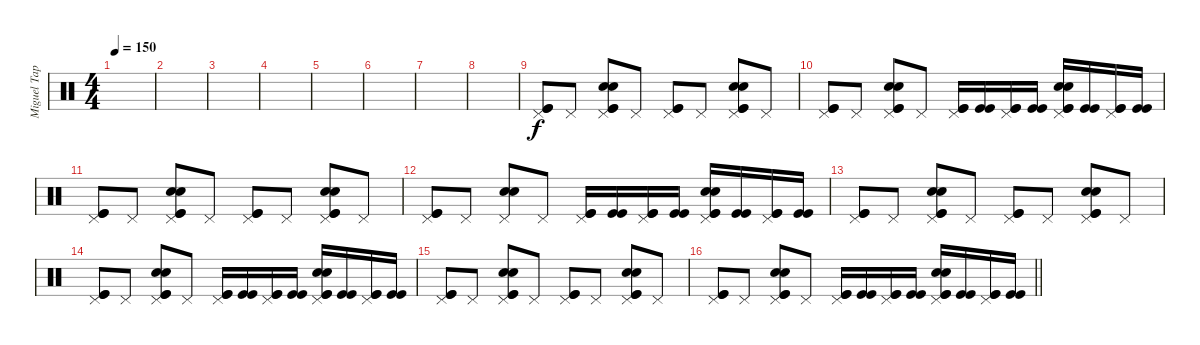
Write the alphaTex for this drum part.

\track ("Miguel Tapia" "Miguel Tap") {instrument percussion}
\staff {score}
\articulation defaults
\ts (4 4)
\tempo 150
\clef neutral
\ks c
|
|
|
|
|
|
|
|
("Pedal Hi-Hat (hit)" "Kick (hit)" "Kick (hit)").8 "Pedal Hi-Hat (hit)".8 ("Pedal Hi-Hat (hit)" "Snare (hit) 2" "Snare (hit) 2" "Kick (hit)" "Kick (hit)").8 "Pedal Hi-Hat (hit)".8 ("Pedal Hi-Hat (hit)" "Kick (hit)" "Kick (hit)").8 "Pedal Hi-Hat (hit)".8 ("Pedal Hi-Hat (hit)" "Snare (hit) 2" "Snare (hit) 2" "Kick (hit)" "Kick (hit)").8 "Pedal Hi-Hat (hit)".8 |
("Pedal Hi-Hat (hit)" "Kick (hit)" "Kick (hit)").8 "Pedal Hi-Hat (hit)".8 ("Pedal Hi-Hat (hit)" "Snare (hit) 2" "Snare (hit) 2" "Kick (hit)" "Kick (hit)").8 "Pedal Hi-Hat (hit)".8 ("Pedal Hi-Hat (hit)" "Kick (hit)" "Kick (hit)").16 ("Kick (hit)" "Kick (hit)").16 ("Pedal Hi-Hat (hit)" "Kick (hit)" "Kick (hit)").16 ("Kick (hit)" "Kick (hit)").16 ("Pedal Hi-Hat (hit)" "Kick (hit)" "Kick (hit)" "Snare (hit) 2" "Snare (hit) 2").16 ("Kick (hit)" "Kick (hit)").16 ("Pedal Hi-Hat (hit)" "Kick (hit)" "Kick (hit)").16 ("Kick (hit)" "Kick (hit)").16 |
("Pedal Hi-Hat (hit)" "Kick (hit)" "Kick (hit)").8 "Pedal Hi-Hat (hit)".8 ("Pedal Hi-Hat (hit)" "Snare (hit) 2" "Snare (hit) 2" "Kick (hit)" "Kick (hit)").8 "Pedal Hi-Hat (hit)".8 ("Pedal Hi-Hat (hit)" "Kick (hit)" "Kick (hit)").8 "Pedal Hi-Hat (hit)".8 ("Pedal Hi-Hat (hit)" "Snare (hit) 2" "Snare (hit) 2" "Kick (hit)" "Kick (hit)").8 "Pedal Hi-Hat (hit)".8 |
("Pedal Hi-Hat (hit)" "Kick (hit)" "Kick (hit)").8 "Pedal Hi-Hat (hit)".8 ("Pedal Hi-Hat (hit)" "Snare (hit) 2" "Snare (hit) 2").8 "Pedal Hi-Hat (hit)".8 ("Pedal Hi-Hat (hit)" "Kick (hit)" "Kick (hit)").16 ("Kick (hit)" "Kick (hit)").16 ("Pedal Hi-Hat (hit)" "Kick (hit)" "Kick (hit)").16 ("Kick (hit)" "Kick (hit)").16 ("Pedal Hi-Hat (hit)" "Kick (hit)" "Kick (hit)" "Snare (hit) 2" "Snare (hit) 2").16 ("Kick (hit)" "Kick (hit)").16 ("Pedal Hi-Hat (hit)" "Kick (hit)" "Kick (hit)").16 ("Kick (hit)" "Kick (hit)").16 |
("Pedal Hi-Hat (hit)" "Kick (hit)" "Kick (hit)").8 "Pedal Hi-Hat (hit)".8 ("Pedal Hi-Hat (hit)" "Snare (hit) 2" "Snare (hit) 2" "Kick (hit)" "Kick (hit)").8 "Pedal Hi-Hat (hit)".8 ("Pedal Hi-Hat (hit)" "Kick (hit)" "Kick (hit)").8 "Pedal Hi-Hat (hit)".8 ("Pedal Hi-Hat (hit)" "Snare (hit) 2" "Snare (hit) 2" "Kick (hit)" "Kick (hit)").8 "Pedal Hi-Hat (hit)".8 |
("Pedal Hi-Hat (hit)" "Kick (hit)" "Kick (hit)").8 "Pedal Hi-Hat (hit)".8 ("Pedal Hi-Hat (hit)" "Snare (hit) 2" "Snare (hit) 2" "Kick (hit)" "Kick (hit)").8 "Pedal Hi-Hat (hit)".8 ("Pedal Hi-Hat (hit)" "Kick (hit)" "Kick (hit)").16 ("Kick (hit)" "Kick (hit)").16 ("Pedal Hi-Hat (hit)" "Kick (hit)" "Kick (hit)").16 ("Kick (hit)" "Kick (hit)").16 ("Pedal Hi-Hat (hit)" "Kick (hit)" "Kick (hit)" "Snare (hit) 2" "Snare (hit) 2").16 ("Kick (hit)" "Kick (hit)").16 ("Pedal Hi-Hat (hit)" "Kick (hit)" "Kick (hit)").16 ("Kick (hit)" "Kick (hit)").16 |
("Pedal Hi-Hat (hit)" "Kick (hit)" "Kick (hit)").8 "Pedal Hi-Hat (hit)".8 ("Pedal Hi-Hat (hit)" "Snare (hit) 2" "Snare (hit) 2" "Kick (hit)" "Kick (hit)").8 "Pedal Hi-Hat (hit)".8 ("Pedal Hi-Hat (hit)" "Kick (hit)" "Kick (hit)").8 "Pedal Hi-Hat (hit)".8 ("Pedal Hi-Hat (hit)" "Snare (hit) 2" "Snare (hit) 2" "Kick (hit)" "Kick (hit)").8 "Pedal Hi-Hat (hit)".8 |
\barLineRight lightlight
("Pedal Hi-Hat (hit)" "Kick (hit)" "Kick (hit)").8 "Pedal Hi-Hat (hit)".8 ("Pedal Hi-Hat (hit)" "Snare (hit) 2" "Snare (hit) 2" "Kick (hit)" "Kick (hit)").8 "Pedal Hi-Hat (hit)".8 ("Pedal Hi-Hat (hit)" "Kick (hit)" "Kick (hit)").16 ("Kick (hit)" "Kick (hit)").16 ("Pedal Hi-Hat (hit)" "Kick (hit)" "Kick (hit)").16 ("Kick (hit)" "Kick (hit)").16 ("Pedal Hi-Hat (hit)" "Kick (hit)" "Kick (hit)" "Snare (hit) 2" "Snare (hit) 2").16 ("Kick (hit)" "Kick (hit)").16 ("Pedal Hi-Hat (hit)" "Kick (hit)" "Kick (hit)").16 ("Kick (hit)" "Kick (hit)").16
